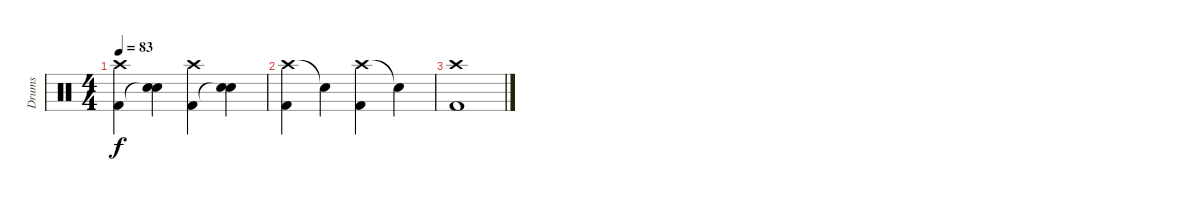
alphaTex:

\track ("Drums" "Drums") {instrument percussion}
\staff {score}
\articulation defaults
\ts (4 4)
\tempo 83
\clef neutral
\ks c
("Crash high (hit)" "Kick (hit) 2").4{dy f} ("Electric Snare (hit)" "Snare (hit)"{t}).4 ("Crash high (hit)" "Kick (hit) 2").4 ("Electric Snare (hit)" "Snare (hit)"{t}).4 |
("Crash high (hit)" "Kick (hit) 2").4 "Snare (hit)"{t}.4 ("Crash high (hit)" "Kick (hit) 2").4 "Snare (hit)"{t}.4 |
("Crash high (hit)" "Kick (hit) 2").1
